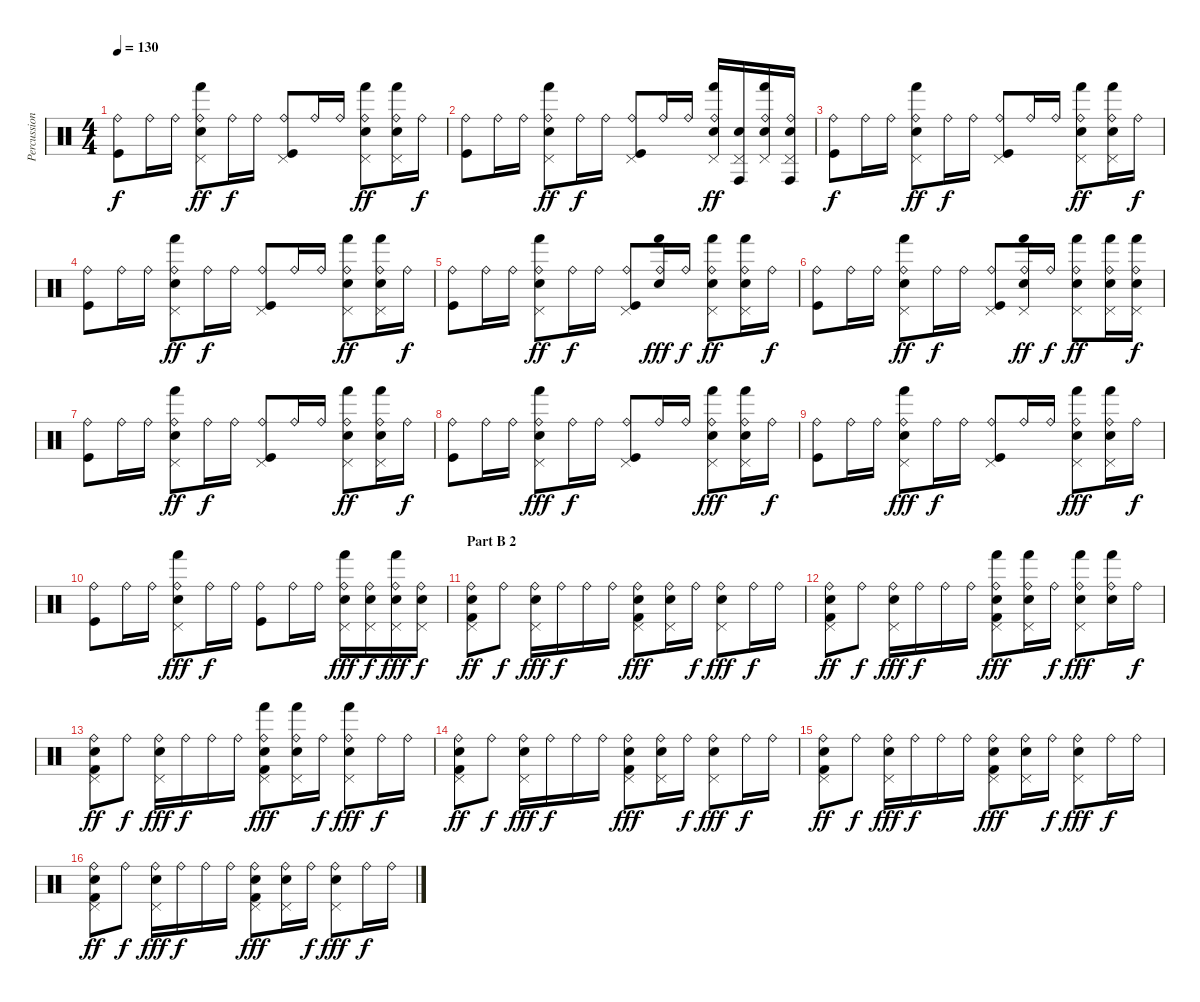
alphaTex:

\track ("Percussion" "Percussion") {instrument percussion}
\staff {score}
\articulation defaults
\ts (4 4)
\tempo 130
\clef neutral
\ks c
("Ride (bell)" "Kick (hit)").8{dy f} "Ride (bell)".16 "Ride (bell)".16 ("Ride (bell)" "Pedal Hi-Hat (hit)" "Hand (hit)" "Electric Snare (hit)").8{dy ff} "Ride (bell)".16{dy f} "Ride (bell)".16 ("Ride (bell)" "Pedal Hi-Hat (hit)" "Kick (hit)").8 "Ride (bell)".16 "Ride (bell)".16 ("Ride (bell)" "Pedal Hi-Hat (hit)" "Hand (hit)" "Electric Snare (hit)").8{dy ff} ("Ride (bell)" "Pedal Hi-Hat (hit)" "Hand (hit)" "Electric Snare (hit)").16 "Ride (bell)".16{dy f} |
("Ride (bell)" "Kick (hit)").8 "Ride (bell)".16 "Ride (bell)".16 ("Ride (bell)" "Pedal Hi-Hat (hit)" "Hand (hit)" "Electric Snare (hit)").8{dy ff} "Ride (bell)".16{dy f} "Ride (bell)".16 ("Ride (bell)" "Pedal Hi-Hat (hit)" "Kick (hit)").8 "Ride (bell)".16 "Ride (bell)".16 ("Ride (bell)" "Pedal Hi-Hat (hit)" "Hand (hit)" "Electric Snare (hit)").16{dy ff} ("Pedal Hi-Hat (hit)" "Conga high (hit)" "Electric Snare (hit)").16 ("Ride (bell)" "Pedal Hi-Hat (hit)" "Hand (hit)" "Electric Snare (hit)").16 ("Ride (bell)" "Pedal Hi-Hat (hit)" "Conga high (hit)" "Electric Snare (hit)").16 |
("Ride (bell)" "Kick (hit)").8{dy f} "Ride (bell)".16 "Ride (bell)".16 ("Ride (bell)" "Pedal Hi-Hat (hit)" "Hand (hit)" "Electric Snare (hit)").8{dy ff} "Ride (bell)".16{dy f} "Ride (bell)".16 ("Ride (bell)" "Pedal Hi-Hat (hit)" "Kick (hit)").8 "Ride (bell)".16 "Ride (bell)".16 ("Ride (bell)" "Pedal Hi-Hat (hit)" "Hand (hit)" "Electric Snare (hit)").8{dy ff} ("Ride (bell)" "Pedal Hi-Hat (hit)" "Hand (hit)" "Electric Snare (hit)").16 "Ride (bell)".16{dy f} |
("Ride (bell)" "Kick (hit)").8 "Ride (bell)".16 "Ride (bell)".16 ("Ride (bell)" "Pedal Hi-Hat (hit)" "Hand (hit)" "Electric Snare (hit)").8{dy ff} "Ride (bell)".16{dy f} "Ride (bell)".16 ("Ride (bell)" "Pedal Hi-Hat (hit)" "Kick (hit)").8 "Ride (bell)".16 "Ride (bell)".16 ("Ride (bell)" "Pedal Hi-Hat (hit)" "Hand (hit)" "Electric Snare (hit)").8{dy ff} ("Ride (bell)" "Pedal Hi-Hat (hit)" "Hand (hit)" "Electric Snare (hit)").16 "Ride (bell)".16{dy f} |
("Ride (bell)" "Kick (hit)").8 "Ride (bell)".16 "Ride (bell)".16 ("Ride (bell)" "Pedal Hi-Hat (hit)" "Hand (hit)" "Electric Snare (hit)").8{dy ff} "Ride (bell)".16{dy f} "Ride (bell)".16 ("Ride (bell)" "Pedal Hi-Hat (hit)" "Kick (hit)").8 ("Ride (bell)" "Hand (hit)" "Electric Snare (hit)").16{dy fff} "Ride (bell)".16{dy f} ("Ride (bell)" "Pedal Hi-Hat (hit)" "Hand (hit)" "Electric Snare (hit)").8{dy ff} ("Ride (bell)" "Pedal Hi-Hat (hit)" "Hand (hit)" "Electric Snare (hit)").16 "Ride (bell)".16{dy f} |
("Ride (bell)" "Kick (hit)").8 "Ride (bell)".16 "Ride (bell)".16 ("Ride (bell)" "Pedal Hi-Hat (hit)" "Hand (hit)" "Electric Snare (hit)").8{dy ff} "Ride (bell)".16{dy f} "Ride (bell)".16 ("Ride (bell)" "Pedal Hi-Hat (hit)" "Kick (hit)").8 ("Ride (bell)" "Pedal Hi-Hat (hit)" "Hand (hit)" "Electric Snare (hit)").16{dy ff} "Ride (bell)".16{dy f} ("Ride (bell)" "Pedal Hi-Hat (hit)" "Hand (hit)" "Electric Snare (hit)").8{dy ff} ("Ride (bell)" "Pedal Hi-Hat (hit)" "Hand (hit)" "Electric Snare (hit)").16 ("Ride (bell)" "Pedal Hi-Hat (hit)" "Hand (hit)" "Electric Snare (hit)").16{dy f} |
("Ride (bell)" "Kick (hit)").8 "Ride (bell)".16 "Ride (bell)".16 ("Ride (bell)" "Pedal Hi-Hat (hit)" "Hand (hit)" "Electric Snare (hit)").8{dy ff} "Ride (bell)".16{dy f} "Ride (bell)".16 ("Ride (bell)" "Pedal Hi-Hat (hit)" "Kick (hit)").8 "Ride (bell)".16 "Ride (bell)".16 ("Ride (bell)" "Pedal Hi-Hat (hit)" "Hand (hit)" "Electric Snare (hit)").8{dy ff} ("Ride (bell)" "Pedal Hi-Hat (hit)" "Hand (hit)" "Electric Snare (hit)").16 "Ride (bell)".16{dy f} |
("Ride (bell)" "Kick (hit)").8 "Ride (bell)".16 "Ride (bell)".16 ("Ride (bell)" "Pedal Hi-Hat (hit)" "Hand (hit)" "Electric Snare (hit)").8{dy fff} "Ride (bell)".16{dy f} "Ride (bell)".16 ("Ride (bell)" "Pedal Hi-Hat (hit)" "Kick (hit)").8 "Ride (bell)".16 "Ride (bell)".16 ("Ride (bell)" "Pedal Hi-Hat (hit)" "Hand (hit)" "Electric Snare (hit)").8{dy fff} ("Ride (bell)" "Pedal Hi-Hat (hit)" "Hand (hit)" "Electric Snare (hit)").16 "Ride (bell)".16{dy f} |
("Ride (bell)" "Kick (hit)").8 "Ride (bell)".16 "Ride (bell)".16 ("Ride (bell)" "Pedal Hi-Hat (hit)" "Hand (hit)" "Electric Snare (hit)").8{dy fff} "Ride (bell)".16{dy f} "Ride (bell)".16 ("Ride (bell)" "Pedal Hi-Hat (hit)" "Kick (hit)").8 "Ride (bell)".16 "Ride (bell)".16 ("Ride (bell)" "Pedal Hi-Hat (hit)" "Hand (hit)" "Electric Snare (hit)").8{dy fff} ("Ride (bell)" "Pedal Hi-Hat (hit)" "Hand (hit)" "Electric Snare (hit)").16 "Ride (bell)".16{dy f} |
("Ride (bell)" "Kick (hit)").8 "Ride (bell)".16 "Ride (bell)".16 ("Ride (bell)" "Pedal Hi-Hat (hit)" "Hand (hit)" "Electric Snare (hit)").8{dy fff} "Ride (bell)".16{dy f} "Ride (bell)".16 ("Ride (bell)" "Kick (hit)").8 "Ride (bell)".16 "Ride (bell)".16 ("Ride (bell)" "Pedal Hi-Hat (hit)" "Hand (hit)" "Electric Snare (hit)").16{dy fff} ("Ride (bell)" "Pedal Hi-Hat (hit)" "Electric Snare (hit)").16{dy f} ("Ride (bell)" "Pedal Hi-Hat (hit)" "Hand (hit)" "Electric Snare (hit)").16{dy fff} ("Ride (bell)" "Pedal Hi-Hat (hit)" "Electric Snare (hit)").16{dy f} |
\section ("" "Part B 2")
("Ride (bell)" "Pedal Hi-Hat (hit)" "Electric Snare (hit)" "Kick (hit) 2").8{dy ff} "Ride (bell)".8{dy f} ("Ride (bell)" "Pedal Hi-Hat (hit)" "Electric Snare (hit)").16{dy fff} "Ride (bell)".16{dy f} "Ride (bell)".16 "Ride (bell)".16 ("Ride (bell)" "Pedal Hi-Hat (hit)" "Electric Snare (hit)" "Kick (hit) 2").8{dy fff} ("Ride (bell)" "Pedal Hi-Hat (hit)" "Electric Snare (hit)").16 "Ride (bell)".16{dy f} ("Ride (bell)" "Pedal Hi-Hat (hit)" "Electric Snare (hit)").8{dy fff} "Ride (bell)".16{dy f} "Ride (bell)".16 |
("Ride (bell)" "Pedal Hi-Hat (hit)" "Electric Snare (hit)" "Kick (hit) 2").8{dy ff} "Ride (bell)".8{dy f} ("Ride (bell)" "Pedal Hi-Hat (hit)" "Electric Snare (hit)").16{dy fff} "Ride (bell)".16{dy f} "Ride (bell)".16 "Ride (bell)".16 ("Ride (bell)" "Pedal Hi-Hat (hit)" "Hand (hit)" "Electric Snare (hit)" "Kick (hit) 2").8{dy fff} ("Ride (bell)" "Pedal Hi-Hat (hit)" "Hand (hit)" "Electric Snare (hit)").16 "Ride (bell)".16{dy f} ("Ride (bell)" "Pedal Hi-Hat (hit)" "Hand (hit)" "Electric Snare (hit)").8{dy fff} ("Ride (bell)" "Hand (hit)" "Electric Snare (hit)").16 "Ride (bell)".16{dy f} |
("Ride (bell)" "Pedal Hi-Hat (hit)" "Electric Snare (hit)" "Kick (hit) 2").8{dy ff} "Ride (bell)".8{dy f} ("Ride (bell)" "Pedal Hi-Hat (hit)" "Electric Snare (hit)").16{dy fff} "Ride (bell)".16{dy f} "Ride (bell)".16 "Ride (bell)".16 ("Ride (bell)" "Pedal Hi-Hat (hit)" "Hand (hit)" "Electric Snare (hit)" "Kick (hit) 2").8{dy fff} ("Ride (bell)" "Pedal Hi-Hat (hit)" "Hand (hit)" "Electric Snare (hit)").16 "Ride (bell)".16{dy f} ("Ride (bell)" "Pedal Hi-Hat (hit)" "Hand (hit)" "Electric Snare (hit)").8{dy fff} "Ride (bell)".16{dy f} "Ride (bell)".16 |
("Ride (bell)" "Pedal Hi-Hat (hit)" "Electric Snare (hit)" "Kick (hit) 2").8{dy ff} "Ride (bell)".8{dy f} ("Ride (bell)" "Pedal Hi-Hat (hit)" "Electric Snare (hit)").16{dy fff} "Ride (bell)".16{dy f} "Ride (bell)".16 "Ride (bell)".16 ("Ride (bell)" "Pedal Hi-Hat (hit)" "Electric Snare (hit)" "Kick (hit) 2").8{dy fff} ("Ride (bell)" "Pedal Hi-Hat (hit)" "Electric Snare (hit)").16 "Ride (bell)".16{dy f} ("Ride (bell)" "Pedal Hi-Hat (hit)" "Electric Snare (hit)").8{dy fff} "Ride (bell)".16{dy f} "Ride (bell)".16 |
("Ride (bell)" "Pedal Hi-Hat (hit)" "Electric Snare (hit)" "Kick (hit) 2").8{dy ff} "Ride (bell)".8{dy f} ("Ride (bell)" "Pedal Hi-Hat (hit)" "Electric Snare (hit)").16{dy fff} "Ride (bell)".16{dy f} "Ride (bell)".16 "Ride (bell)".16 ("Ride (bell)" "Pedal Hi-Hat (hit)" "Electric Snare (hit)" "Kick (hit) 2").8{dy fff} ("Ride (bell)" "Pedal Hi-Hat (hit)" "Electric Snare (hit)").16 "Ride (bell)".16{dy f} ("Ride (bell)" "Pedal Hi-Hat (hit)" "Electric Snare (hit)").8{dy fff} "Ride (bell)".16{dy f} "Ride (bell)".16 |
("Ride (bell)" "Pedal Hi-Hat (hit)" "Electric Snare (hit)" "Kick (hit) 2").8{dy ff} "Ride (bell)".8{dy f} ("Ride (bell)" "Pedal Hi-Hat (hit)" "Electric Snare (hit)").16{dy fff} "Ride (bell)".16{dy f} "Ride (bell)".16 "Ride (bell)".16 ("Ride (bell)" "Pedal Hi-Hat (hit)" "Electric Snare (hit)" "Kick (hit) 2").8{dy fff} ("Ride (bell)" "Pedal Hi-Hat (hit)" "Electric Snare (hit)").16 "Ride (bell)".16{dy f} ("Ride (bell)" "Pedal Hi-Hat (hit)" "Electric Snare (hit)").8{dy fff} "Ride (bell)".16{dy f} "Ride (bell)".16
